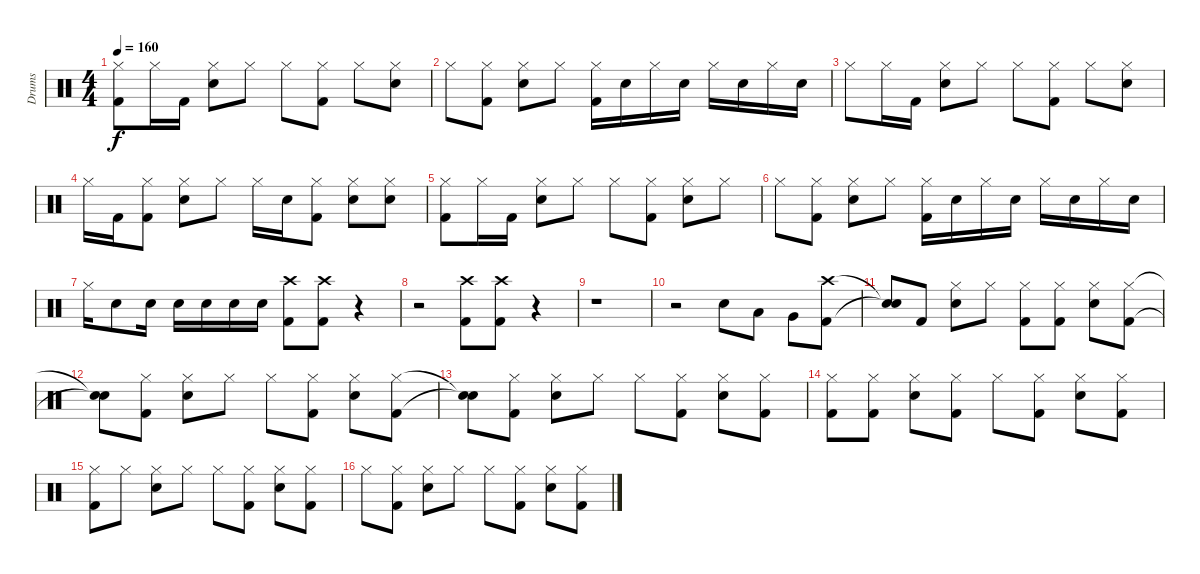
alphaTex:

\track ("Drums" "Drums") {instrument percussion}
\staff {score}
\articulation defaults
\ts (4 4)
\tempo 160
\clef neutral
\ks c
("Hi-Hat (closed)" "Kick (hit) 2").8{dy f} "Hi-Hat (closed)".16 "Kick (hit) 2".16 ("Hi-Hat (closed)" "Snare (hit) 2").8 "Hi-Hat (closed)".8 "Hi-Hat (closed)".8 ("Hi-Hat (closed)" "Kick (hit) 2").8 "Hi-Hat (closed)".8 ("Hi-Hat (closed)" "Snare (hit) 2").8 |
"Hi-Hat (closed)".8 ("Hi-Hat (closed)" "Kick (hit) 2").8 ("Hi-Hat (closed)" "Snare (hit) 2").8 "Hi-Hat (closed)".8 ("Hi-Hat (closed)" "Kick (hit) 2").16 "Snare (hit) 2".16 "Hi-Hat (closed)".16 "Snare (hit) 2".16 "Hi-Hat (closed)".16 "Snare (hit) 2".16 "Hi-Hat (closed)".16 "Snare (hit) 2".16 |
"Hi-Hat (closed)".8 "Hi-Hat (closed)".16 "Kick (hit) 2".16 ("Hi-Hat (closed)" "Snare (hit) 2").8 "Hi-Hat (closed)".8 "Hi-Hat (closed)".8 ("Hi-Hat (closed)" "Kick (hit) 2").8 "Hi-Hat (closed)".8 ("Hi-Hat (closed)" "Snare (hit) 2").8 |
"Hi-Hat (closed)".16 "Kick (hit) 2".16 ("Hi-Hat (closed)" "Kick (hit) 2").8 ("Hi-Hat (closed)" "Snare (hit) 2").8 "Hi-Hat (closed)".8 "Hi-Hat (closed)".16 "Snare (hit) 2".16 ("Hi-Hat (closed)" "Kick (hit) 2").8 ("Hi-Hat (closed)" "Snare (hit) 2").8 ("Hi-Hat (closed)" "Snare (hit) 2").8 |
("Hi-Hat (closed)" "Kick (hit) 2").8 "Hi-Hat (closed)".16 "Kick (hit) 2".16 ("Hi-Hat (closed)" "Snare (hit) 2").8 "Hi-Hat (closed)".8 "Hi-Hat (closed)".8 ("Hi-Hat (closed)" "Kick (hit) 2").8 ("Hi-Hat (closed)" "Snare (hit) 2").8 "Hi-Hat (closed)".8 |
"Hi-Hat (closed)".8 ("Hi-Hat (closed)" "Kick (hit) 2").8 ("Hi-Hat (closed)" "Snare (hit) 2").8 "Hi-Hat (closed)".8 ("Hi-Hat (closed)" "Kick (hit) 2").16 "Snare (hit) 2".16 "Hi-Hat (closed)".16 "Snare (hit) 2".16 "Hi-Hat (closed)".16 "Snare (hit) 2".16 "Hi-Hat (closed)".16 "Snare (hit) 2".16 |
"Hi-Hat (closed)".16 "Snare (hit) 2".8 "Snare (hit) 2".16 "Snare (hit) 2".16 "Snare (hit) 2".16 "Snare (hit) 2".16 "Snare (hit) 2".16 ("Crash high (hit)" "Kick (hit) 2").8 ("Crash high (hit)" "Kick (hit) 2").8 r.4 |
r.2 ("Crash high (hit)" "Kick (hit) 2").8 ("Crash high (hit)" "Kick (hit) 2").8 r.4 |
r.1 |
r.2 "Snare (hit) 2".8 "Low Tom (hit)".8 "Very Low Tom (hit)".8 ("Crash high (hit)" "Kick (hit) 2").8 |
("Snare (hit)"{t} "Snare (hit)"{t}).8 "Kick (hit) 2".8 ("Hi-Hat (closed)" "Snare (hit) 2").8 "Hi-Hat (closed)".8 ("Hi-Hat (closed)" "Kick (hit) 2").8 ("Hi-Hat (closed)" "Kick (hit) 2").8 ("Hi-Hat (closed)" "Snare (hit) 2").8 ("Hi-Hat (closed)" "Kick (hit) 2").8 |
("Snare (hit)"{t} "Snare (hit)"{t}).8 ("Hi-Hat (closed)" "Kick (hit) 2").8 ("Hi-Hat (closed)" "Snare (hit) 2").8 "Hi-Hat (closed)".8 "Hi-Hat (closed)".8 ("Hi-Hat (closed)" "Kick (hit) 2").8 ("Hi-Hat (closed)" "Snare (hit) 2").8 ("Hi-Hat (closed)" "Kick (hit) 2").8 |
("Snare (hit)"{t} "Snare (hit)"{t}).8 ("Hi-Hat (closed)" "Kick (hit) 2").8 ("Hi-Hat (closed)" "Snare (hit) 2").8 "Hi-Hat (closed)".8 "Hi-Hat (closed)".8 ("Hi-Hat (closed)" "Kick (hit) 2").8 ("Hi-Hat (closed)" "Snare (hit) 2").8 ("Hi-Hat (closed)" "Kick (hit) 2").8 |
("Hi-Hat (closed)" "Kick (hit) 2").8 ("Hi-Hat (closed)" "Kick (hit) 2").8 ("Hi-Hat (closed)" "Snare (hit) 2").8 ("Hi-Hat (closed)" "Kick (hit) 2").8 "Hi-Hat (closed)".8 ("Hi-Hat (closed)" "Kick (hit) 2").8 ("Hi-Hat (closed)" "Snare (hit) 2").8 ("Hi-Hat (closed)" "Kick (hit) 2").8 |
("Hi-Hat (closed)" "Kick (hit) 2").8 "Hi-Hat (closed)".8 ("Hi-Hat (closed)" "Snare (hit) 2").8 "Hi-Hat (closed)".8 "Hi-Hat (closed)".8 ("Hi-Hat (closed)" "Kick (hit) 2").8 ("Hi-Hat (closed)" "Snare (hit) 2").8 ("Hi-Hat (closed)" "Kick (hit) 2").8 |
"Hi-Hat (closed)".8 ("Hi-Hat (closed)" "Kick (hit) 2").8 ("Hi-Hat (closed)" "Snare (hit) 2").8 "Hi-Hat (closed)".8 "Hi-Hat (closed)".8 ("Hi-Hat (closed)" "Kick (hit) 2").8 ("Hi-Hat (closed)" "Snare (hit) 2").8 ("Hi-Hat (closed)" "Kick (hit) 2").8
